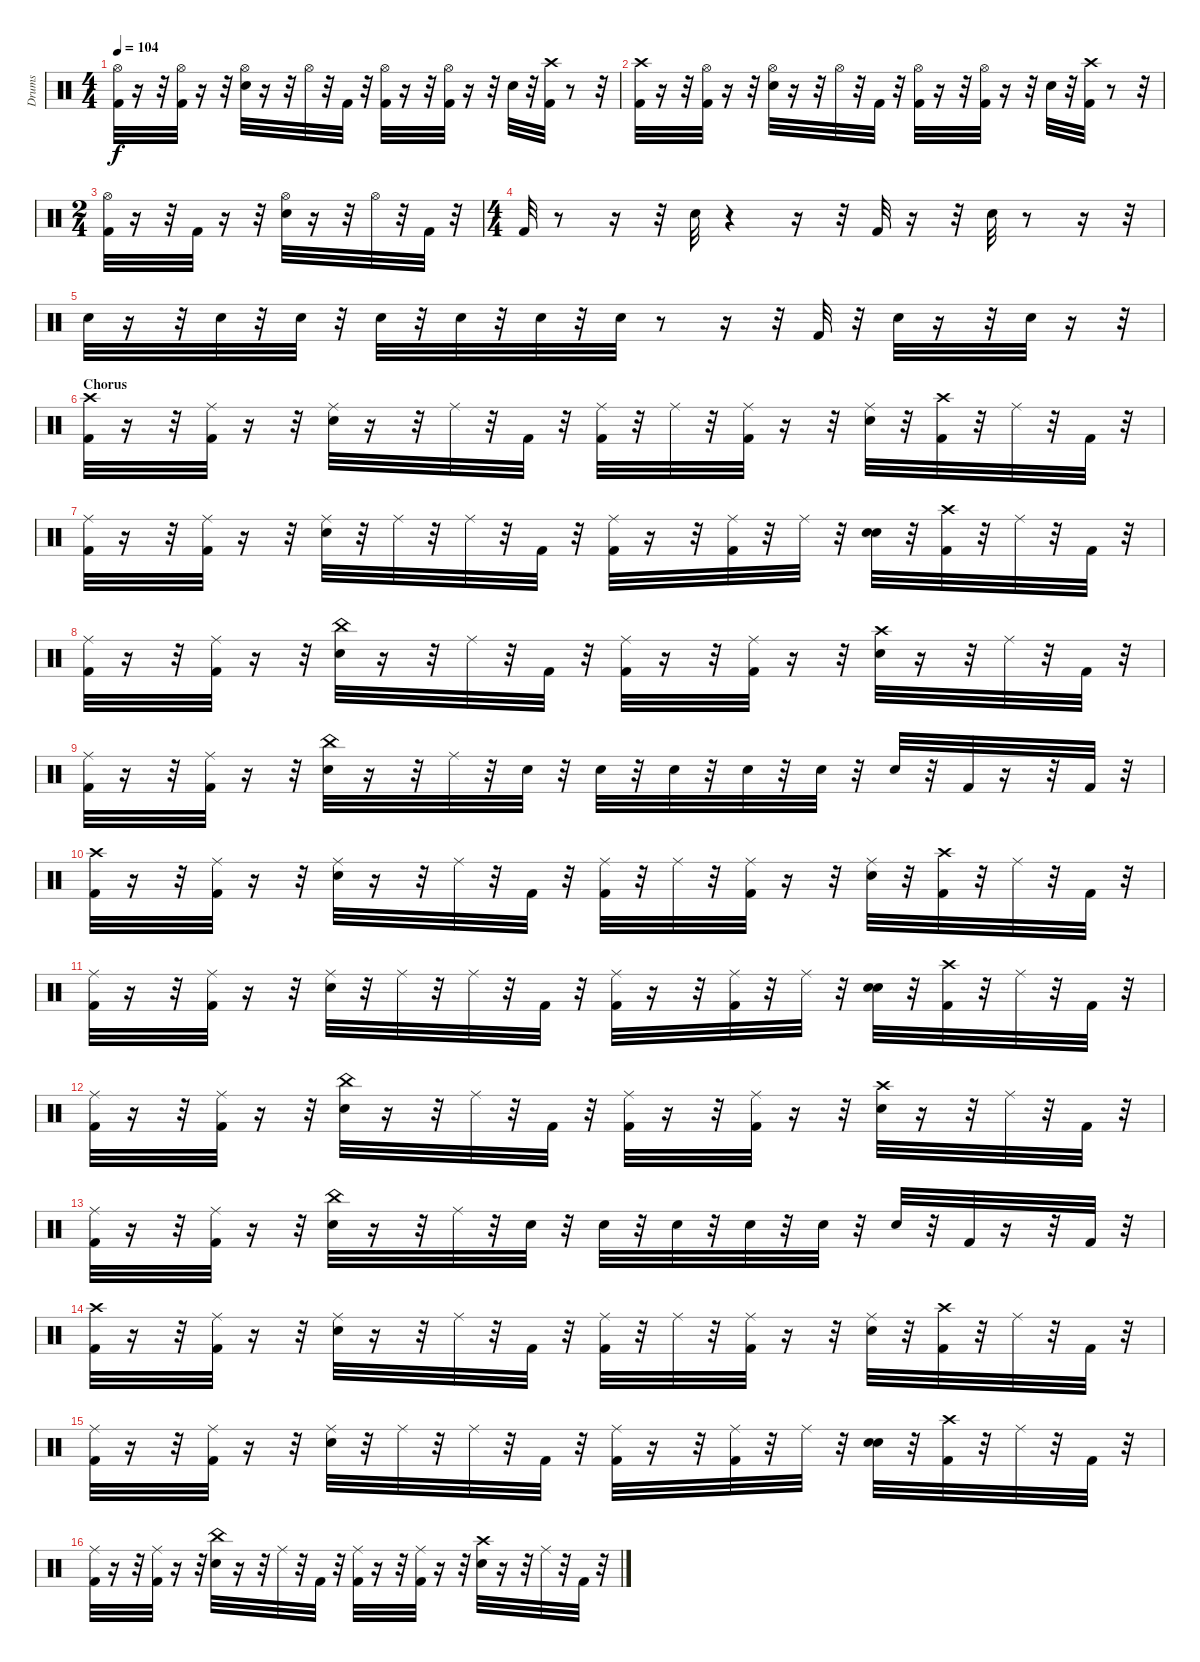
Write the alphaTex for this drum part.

\track ("Drums" "Drums") {instrument percussion}
\staff {score}
\articulation defaults
\ts (4 4)
\tempo 104
\clef neutral
\ks c
("Hi-Hat (open)" "Kick (hit) 2").32{dy f} r.16 r.32 ("Kick (hit) 2" "Hi-Hat (open)").32 r.16 r.32 ("Hi-Hat (open)" "Snare (hit) 2").32 r.16 r.32 "Hi-Hat (open)".32 r.32 "Kick (hit) 2".32 r.32 ("Kick (hit) 2" "Hi-Hat (open)").32 r.16 r.32 ("Kick (hit) 2" "Hi-Hat (open)").32 r.16 r.32 "Snare (hit) 2".32 r.32 ("Kick (hit) 2" "Crash high (hit)").32 r.8 r.32 |
("Crash high (hit)" "Kick (hit) 2").32 r.16 r.32 ("Kick (hit) 2" "Hi-Hat (open)").32 r.16 r.32 ("Snare (hit) 2" "Hi-Hat (open)").32 r.16 r.32 "Hi-Hat (open)".32 r.32 "Kick (hit) 2".32 r.32 ("Kick (hit) 2" "Hi-Hat (open)").32 r.16 r.32 ("Hi-Hat (open)" "Kick (hit) 2").32 r.16 r.32 "Snare (hit) 2".32 r.32 ("Crash high (hit)" "Kick (hit) 2").32 r.8 r.32 |
\ts (2 4)
("Kick (hit) 2" "Hi-Hat (open)").32 r.16 r.32 "Kick (hit) 2".32 r.16 r.32 ("Snare (hit) 2" "Hi-Hat (open)").32 r.16 r.32 "Hi-Hat (open)".32 r.32 "Kick (hit) 2".32 r.32 |
\ts (4 4)
"Kick (hit) 2".32 r.8 r.16 r.32 "Snare (hit) 2".32 r.4 r.16 r.32 "Kick (hit) 2".32 r.16 r.32 "Snare (hit) 2".32 r.8 r.16 r.32 |
"Snare (hit) 2".32 r.16 r.32 "Snare (hit) 2".32 r.32 "Snare (hit) 2".32 r.32 "Snare (hit) 2".32 r.32 "Snare (hit) 2".32 r.32 "Snare (hit) 2".32 r.32 "Snare (hit) 2".32 r.8 r.16 r.32 "Kick (hit) 2".32 r.32 "Snare (hit) 2".32 r.16 r.32 "Snare (hit) 2".32 r.16 r.32 |
\section ("" "Chorus")
("Crash high (hit)" "Kick (hit) 2").32 r.16 r.32 ("Kick (hit) 2" "Ride (middle)").32 r.16 r.32 ("Ride (middle)" "Snare (hit) 2").32 r.16 r.32 "Ride (middle)".32 r.32 "Kick (hit) 2".32 r.32 ("Kick (hit) 2" "Ride (middle)").32 r.32 "Ride (middle)".32 r.32 ("Ride (middle)" "Kick (hit) 2").32 r.16 r.32 ("Snare (hit) 2" "Ride (middle)").32 r.32 ("Crash high (hit)" "Kick (hit) 2").32 r.32 "Ride (middle)".32 r.32 "Kick (hit) 2".32 r.32 |
("Kick (hit) 2" "Ride (middle)").32 r.16 r.32 ("Kick (hit) 2" "Ride (middle)").32 r.16 r.32 ("Snare (hit) 2" "Ride (middle)").32 r.32 "Ride (middle)".32 r.32 "Ride (middle)".32 r.32 "Kick (hit) 2".32 r.32 ("Ride (middle)" "Kick (hit) 2").32 r.16 r.32 ("Kick (hit) 2" "Ride (middle)").32 r.32 "Ride (middle)".32 r.32 ("Electric Snare (hit)" "Snare (hit) 2").32 r.32 ("Kick (hit) 2" "Crash high (hit)").32 r.32 "Ride (middle)".32 r.32 "Kick (hit) 2".32 r.32 |
("Kick (hit) 2" "Ride (middle)").32 r.16 r.32 ("Kick (hit) 2" "Ride (middle)").32 r.16 r.32 ("China (hit)" "Snare (hit) 2").32 r.16 r.32 "Ride (middle)".32 r.32 "Kick (hit) 2".32 r.32 ("Kick (hit) 2" "Ride (middle)").32 r.16 r.32 ("Ride (middle)" "Kick (hit) 2").32 r.16 r.32 ("Snare (hit) 2" "Crash high (hit)").32 r.16 r.32 "Ride (middle)".32 r.32 "Kick (hit) 2".32 r.32 |
("Ride (middle)" "Kick (hit) 2").32 r.16 r.32 ("Kick (hit) 2" "Ride (middle)").32 r.16 r.32 ("Snare (hit) 2" "China (hit)").32 r.16 r.32 "Ride (middle)".32 r.32 "Snare (hit) 2".32 r.32 "Snare (hit) 2".32 r.32 "Snare (hit) 2".32 r.32 "Snare (hit) 2".32 r.32 "Snare (hit) 2".32 r.32 "Snare (hit) 2".32 r.32 "Kick (hit) 2".32 r.16 r.32 "Kick (hit) 2".32 r.32 |
("Crash high (hit)" "Kick (hit) 2").32 r.16 r.32 ("Kick (hit) 2" "Ride (middle)").32 r.16 r.32 ("Ride (middle)" "Snare (hit) 2").32 r.16 r.32 "Ride (middle)".32 r.32 "Kick (hit) 2".32 r.32 ("Kick (hit) 2" "Ride (middle)").32 r.32 "Ride (middle)".32 r.32 ("Ride (middle)" "Kick (hit) 2").32 r.16 r.32 ("Snare (hit) 2" "Ride (middle)").32 r.32 ("Crash high (hit)" "Kick (hit) 2").32 r.32 "Ride (middle)".32 r.32 "Kick (hit) 2".32 r.32 |
("Kick (hit) 2" "Ride (middle)").32 r.16 r.32 ("Kick (hit) 2" "Ride (middle)").32 r.16 r.32 ("Snare (hit) 2" "Ride (middle)").32 r.32 "Ride (middle)".32 r.32 "Ride (middle)".32 r.32 "Kick (hit) 2".32 r.32 ("Ride (middle)" "Kick (hit) 2").32 r.16 r.32 ("Kick (hit) 2" "Ride (middle)").32 r.32 "Ride (middle)".32 r.32 ("Electric Snare (hit)" "Snare (hit) 2").32 r.32 ("Kick (hit) 2" "Crash high (hit)").32 r.32 "Ride (middle)".32 r.32 "Kick (hit) 2".32 r.32 |
("Kick (hit) 2" "Ride (middle)").32 r.16 r.32 ("Kick (hit) 2" "Ride (middle)").32 r.16 r.32 ("China (hit)" "Snare (hit) 2").32 r.16 r.32 "Ride (middle)".32 r.32 "Kick (hit) 2".32 r.32 ("Kick (hit) 2" "Ride (middle)").32 r.16 r.32 ("Ride (middle)" "Kick (hit) 2").32 r.16 r.32 ("Snare (hit) 2" "Crash high (hit)").32 r.16 r.32 "Ride (middle)".32 r.32 "Kick (hit) 2".32 r.32 |
("Ride (middle)" "Kick (hit) 2").32 r.16 r.32 ("Kick (hit) 2" "Ride (middle)").32 r.16 r.32 ("Snare (hit) 2" "China (hit)").32 r.16 r.32 "Ride (middle)".32 r.32 "Snare (hit) 2".32 r.32 "Snare (hit) 2".32 r.32 "Snare (hit) 2".32 r.32 "Snare (hit) 2".32 r.32 "Snare (hit) 2".32 r.32 "Snare (hit) 2".32 r.32 "Kick (hit) 2".32 r.16 r.32 "Kick (hit) 2".32 r.32 |
("Crash high (hit)" "Kick (hit) 2").32 r.16 r.32 ("Kick (hit) 2" "Ride (middle)").32 r.16 r.32 ("Ride (middle)" "Snare (hit) 2").32 r.16 r.32 "Ride (middle)".32 r.32 "Kick (hit) 2".32 r.32 ("Kick (hit) 2" "Ride (middle)").32 r.32 "Ride (middle)".32 r.32 ("Ride (middle)" "Kick (hit) 2").32 r.16 r.32 ("Snare (hit) 2" "Ride (middle)").32 r.32 ("Crash high (hit)" "Kick (hit) 2").32 r.32 "Ride (middle)".32 r.32 "Kick (hit) 2".32 r.32 |
("Kick (hit) 2" "Ride (middle)").32 r.16 r.32 ("Kick (hit) 2" "Ride (middle)").32 r.16 r.32 ("Snare (hit) 2" "Ride (middle)").32 r.32 "Ride (middle)".32 r.32 "Ride (middle)".32 r.32 "Kick (hit) 2".32 r.32 ("Ride (middle)" "Kick (hit) 2").32 r.16 r.32 ("Kick (hit) 2" "Ride (middle)").32 r.32 "Ride (middle)".32 r.32 ("Electric Snare (hit)" "Snare (hit) 2").32 r.32 ("Kick (hit) 2" "Crash high (hit)").32 r.32 "Ride (middle)".32 r.32 "Kick (hit) 2".32 r.32 |
("Kick (hit) 2" "Ride (middle)").32 r.16 r.32 ("Kick (hit) 2" "Ride (middle)").32 r.16 r.32 ("China (hit)" "Snare (hit) 2").32 r.16 r.32 "Ride (middle)".32 r.32 "Kick (hit) 2".32 r.32 ("Kick (hit) 2" "Ride (middle)").32 r.16 r.32 ("Ride (middle)" "Kick (hit) 2").32 r.16 r.32 ("Snare (hit) 2" "Crash high (hit)").32 r.16 r.32 "Ride (middle)".32 r.32 "Kick (hit) 2".32 r.32
